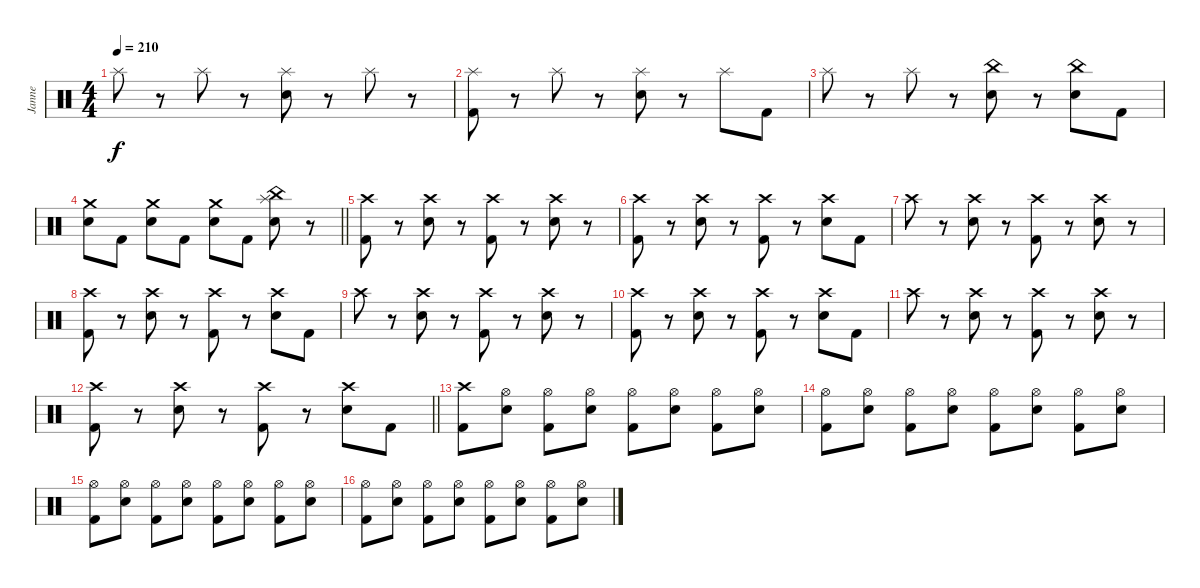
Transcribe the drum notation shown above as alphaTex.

\track ("Janne" "Janne") {instrument percussion}
\staff {score}
\articulation defaults
\ts (4 4)
\tempo 210
\clef neutral
\ks c "Splash (hit)".8{dy f}
r.8 "Splash (hit)".8 r.8 ("Splash (hit)" "Electric Snare (hit)").8 r.8 "Splash (hit)".8 r.8 |
("Splash (hit)" "Kick (hit) 2").8 r.8 "Splash (hit)".8 r.8 ("Splash (hit)" "Electric Snare (hit)").8 r.8 "Splash (hit)".8 "Kick (hit) 2".8 |
"Splash (hit)".8 r.8 "Splash (hit)".8 r.8 ("China (hit)" "Electric Snare (hit)").8 r.8 ("China (hit)" "Electric Snare (hit)").8 "Kick (hit) 2".8 |
\barLineRight lightlight
("Crash medium (hit)" "Electric Snare (hit)").8 "Kick (hit) 2".8 ("Crash medium (hit)" "Electric Snare (hit)").8 "Kick (hit) 2".8 ("Crash medium (hit)" "Electric Snare (hit)").8 "Kick (hit) 2".8 ("China (hit)" "Splash (hit)" "Electric Snare (hit)").8 r.8 |
("Crash high (hit)" "Kick (hit) 2").8 r.8 ("Crash high (hit)" "Electric Snare (hit)").8 r.8 ("Crash high (hit)" "Kick (hit) 2").8 r.8 ("Crash high (hit)" "Electric Snare (hit)").8 r.8 |
("Crash high (hit)" "Kick (hit) 2").8 r.8 ("Crash high (hit)" "Electric Snare (hit)").8 r.8 ("Crash high (hit)" "Kick (hit) 2").8 r.8 ("Crash high (hit)" "Electric Snare (hit)").8 "Kick (hit) 2".8 |
"Crash high (hit)".8 r.8 ("Crash high (hit)" "Electric Snare (hit)").8 r.8 ("Crash high (hit)" "Kick (hit) 2").8 r.8 ("Crash high (hit)" "Electric Snare (hit)").8 r.8 |
("Crash high (hit)" "Kick (hit) 2").8 r.8 ("Crash high (hit)" "Electric Snare (hit)").8 r.8 ("Crash high (hit)" "Kick (hit) 2").8 r.8 ("Crash high (hit)" "Electric Snare (hit)").8 "Kick (hit) 2".8 |
"Crash high (hit)".8 r.8 ("Crash high (hit)" "Electric Snare (hit)").8 r.8 ("Crash high (hit)" "Kick (hit) 2").8 r.8 ("Crash high (hit)" "Electric Snare (hit)").8 r.8 |
("Crash high (hit)" "Kick (hit) 2").8 r.8 ("Crash high (hit)" "Electric Snare (hit)").8 r.8 ("Crash high (hit)" "Kick (hit) 2").8 r.8 ("Crash high (hit)" "Electric Snare (hit)").8 "Kick (hit) 2".8 |
"Crash high (hit)".8 r.8 ("Crash high (hit)" "Electric Snare (hit)").8 r.8 ("Crash high (hit)" "Kick (hit) 2").8 r.8 ("Crash high (hit)" "Electric Snare (hit)").8 r.8 |
\barLineRight lightlight
("Crash high (hit)" "Kick (hit) 2").8 r.8 ("Crash high (hit)" "Electric Snare (hit)").8 r.8 ("Crash high (hit)" "Kick (hit) 2").8 r.8 ("Crash high (hit)" "Electric Snare (hit)").8 "Kick (hit) 2".8 |
("Crash high (hit)" "Kick (hit) 2").8 ("Hi-Hat (open)" "Electric Snare (hit)").8 ("Hi-Hat (open)" "Kick (hit) 2").8 ("Hi-Hat (open)" "Electric Snare (hit)").8 ("Hi-Hat (open)" "Kick (hit) 2").8 ("Hi-Hat (open)" "Electric Snare (hit)").8 ("Hi-Hat (open)" "Kick (hit) 2").8 ("Hi-Hat (open)" "Electric Snare (hit)").8 |
("Hi-Hat (open)" "Kick (hit) 2").8 ("Hi-Hat (open)" "Electric Snare (hit)").8 ("Hi-Hat (open)" "Kick (hit) 2").8 ("Hi-Hat (open)" "Electric Snare (hit)").8 ("Hi-Hat (open)" "Kick (hit) 2").8 ("Hi-Hat (open)" "Electric Snare (hit)").8 ("Hi-Hat (open)" "Kick (hit) 2").8 ("Hi-Hat (open)" "Electric Snare (hit)").8 |
("Hi-Hat (open)" "Kick (hit) 2").8 ("Hi-Hat (open)" "Electric Snare (hit)").8 ("Hi-Hat (open)" "Kick (hit) 2").8 ("Hi-Hat (open)" "Electric Snare (hit)").8 ("Hi-Hat (open)" "Kick (hit) 2").8 ("Hi-Hat (open)" "Electric Snare (hit)").8 ("Hi-Hat (open)" "Kick (hit) 2").8 ("Hi-Hat (open)" "Electric Snare (hit)").8 |
("Hi-Hat (open)" "Kick (hit) 2").8 ("Hi-Hat (open)" "Electric Snare (hit)").8 ("Hi-Hat (open)" "Kick (hit) 2").8 ("Hi-Hat (open)" "Electric Snare (hit)").8 ("Hi-Hat (open)" "Kick (hit) 2").8 ("Hi-Hat (open)" "Electric Snare (hit)").8 ("Hi-Hat (open)" "Kick (hit) 2").8 ("Hi-Hat (open)" "Electric Snare (hit)").8
